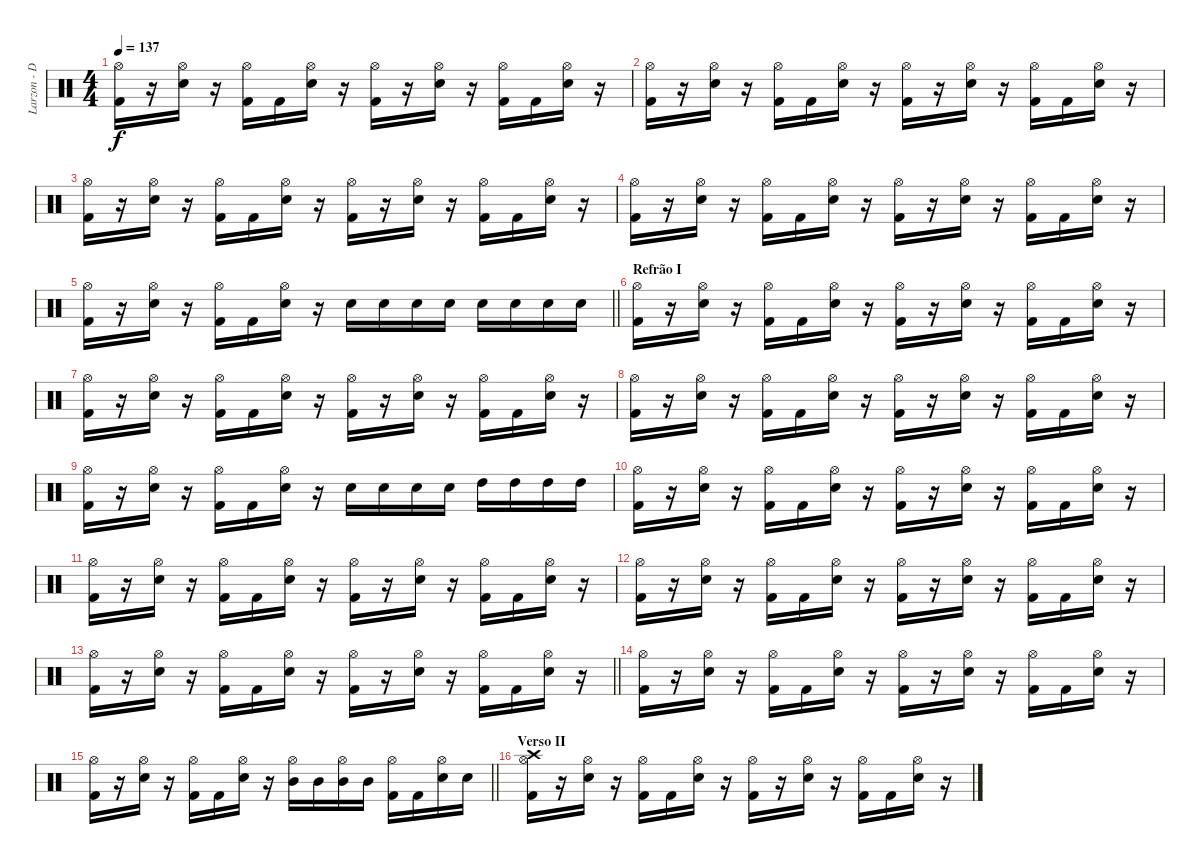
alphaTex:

\track ("Larzon - Drums" "Larzon - D") {instrument percussion}
\staff {score}
\articulation defaults
\ts (4 4)
\tempo 137
\clef neutral
\ks c
("Kick (hit) 2" "Hi-Hat (open)").16{dy f} r.16 ("Snare (hit) 2" "Hi-Hat (open)").16 r.16 ("Kick (hit) 2" "Hi-Hat (open)").16 "Kick (hit) 2".16 ("Snare (hit) 2" "Hi-Hat (open)").16 r.16 ("Kick (hit) 2" "Hi-Hat (open)").16 r.16 ("Snare (hit) 2" "Hi-Hat (open)").16 r.16 ("Kick (hit) 2" "Hi-Hat (open)").16 "Kick (hit) 2".16 ("Snare (hit) 2" "Hi-Hat (open)").16 r.16 |
("Kick (hit) 2" "Hi-Hat (open)").16 r.16 ("Snare (hit) 2" "Hi-Hat (open)").16 r.16 ("Kick (hit) 2" "Hi-Hat (open)").16 "Kick (hit) 2".16 ("Snare (hit) 2" "Hi-Hat (open)").16 r.16 ("Kick (hit) 2" "Hi-Hat (open)").16 r.16 ("Snare (hit) 2" "Hi-Hat (open)").16 r.16 ("Kick (hit) 2" "Hi-Hat (open)").16 "Kick (hit) 2".16 ("Snare (hit) 2" "Hi-Hat (open)").16 r.16 |
("Kick (hit) 2" "Hi-Hat (open)").16 r.16 ("Snare (hit) 2" "Hi-Hat (open)").16 r.16 ("Kick (hit) 2" "Hi-Hat (open)").16 "Kick (hit) 2".16 ("Snare (hit) 2" "Hi-Hat (open)").16 r.16 ("Kick (hit) 2" "Hi-Hat (open)").16 r.16 ("Snare (hit) 2" "Hi-Hat (open)").16 r.16 ("Kick (hit) 2" "Hi-Hat (open)").16 "Kick (hit) 2".16 ("Snare (hit) 2" "Hi-Hat (open)").16 r.16 |
("Kick (hit) 2" "Hi-Hat (open)").16 r.16 ("Snare (hit) 2" "Hi-Hat (open)").16 r.16 ("Kick (hit) 2" "Hi-Hat (open)").16 "Kick (hit) 2".16 ("Snare (hit) 2" "Hi-Hat (open)").16 r.16 ("Kick (hit) 2" "Hi-Hat (open)").16 r.16 ("Snare (hit) 2" "Hi-Hat (open)").16 r.16 ("Kick (hit) 2" "Hi-Hat (open)").16 "Kick (hit) 2".16 ("Snare (hit) 2" "Hi-Hat (open)").16 r.16 |
\barLineRight lightlight
("Kick (hit) 2" "Hi-Hat (open)").16 r.16 ("Snare (hit) 2" "Hi-Hat (open)").16 r.16 ("Kick (hit) 2" "Hi-Hat (open)").16 "Kick (hit) 2".16 ("Snare (hit) 2" "Hi-Hat (open)").16 r.16 "Snare (hit) 2".16 "Snare (hit) 2".16 "Snare (hit) 2".16 "Snare (hit) 2".16 "Snare (hit) 2".16 "Snare (hit) 2".16 "Snare (hit) 2".16 "Snare (hit) 2".16 |
\section ("" "Refrão I")
("Kick (hit) 2" "Hi-Hat (open)").16 r.16 ("Snare (hit) 2" "Hi-Hat (open)").16 r.16 ("Kick (hit) 2" "Hi-Hat (open)").16 "Kick (hit) 2".16 ("Snare (hit) 2" "Hi-Hat (open)").16 r.16 ("Kick (hit) 2" "Hi-Hat (open)").16 r.16 ("Snare (hit) 2" "Hi-Hat (open)").16 r.16 ("Kick (hit) 2" "Hi-Hat (open)").16 "Kick (hit) 2".16 ("Snare (hit) 2" "Hi-Hat (open)").16 r.16 |
("Kick (hit) 2" "Hi-Hat (open)").16 r.16 ("Snare (hit) 2" "Hi-Hat (open)").16 r.16 ("Kick (hit) 2" "Hi-Hat (open)").16 "Kick (hit) 2".16 ("Snare (hit) 2" "Hi-Hat (open)").16 r.16 ("Kick (hit) 2" "Hi-Hat (open)").16 r.16 ("Snare (hit) 2" "Hi-Hat (open)").16 r.16 ("Kick (hit) 2" "Hi-Hat (open)").16 "Kick (hit) 2".16 ("Snare (hit) 2" "Hi-Hat (open)").16 r.16 |
("Kick (hit) 2" "Hi-Hat (open)").16 r.16 ("Snare (hit) 2" "Hi-Hat (open)").16 r.16 ("Kick (hit) 2" "Hi-Hat (open)").16 "Kick (hit) 2".16 ("Snare (hit) 2" "Hi-Hat (open)").16 r.16 ("Kick (hit) 2" "Hi-Hat (open)").16 r.16 ("Snare (hit) 2" "Hi-Hat (open)").16 r.16 ("Kick (hit) 2" "Hi-Hat (open)").16 "Kick (hit) 2".16 ("Snare (hit) 2" "Hi-Hat (open)").16 r.16 |
("Kick (hit) 2" "Hi-Hat (open)").16 r.16 ("Snare (hit) 2" "Hi-Hat (open)").16 r.16 ("Kick (hit) 2" "Hi-Hat (open)").16 "Kick (hit) 2".16 ("Snare (hit) 2" "Hi-Hat (open)").16 r.16 "Snare (hit) 2".16 "Snare (hit) 2".16 "Snare (hit) 2".16 "Snare (hit) 2".16 "High Tom (hit)".16 "High Tom (hit)".16 "High Tom (hit)".16 "High Tom (hit)".16 |
("Kick (hit) 2" "Hi-Hat (open)").16 r.16 ("Snare (hit) 2" "Hi-Hat (open)").16 r.16 ("Kick (hit) 2" "Hi-Hat (open)").16 "Kick (hit) 2".16 ("Snare (hit) 2" "Hi-Hat (open)").16 r.16 ("Kick (hit) 2" "Hi-Hat (open)").16 r.16 ("Snare (hit) 2" "Hi-Hat (open)").16 r.16 ("Kick (hit) 2" "Hi-Hat (open)").16 "Kick (hit) 2".16 ("Snare (hit) 2" "Hi-Hat (open)").16 r.16 |
("Kick (hit) 2" "Hi-Hat (open)").16 r.16 ("Snare (hit) 2" "Hi-Hat (open)").16 r.16 ("Kick (hit) 2" "Hi-Hat (open)").16 "Kick (hit) 2".16 ("Snare (hit) 2" "Hi-Hat (open)").16 r.16 ("Kick (hit) 2" "Hi-Hat (open)").16 r.16 ("Snare (hit) 2" "Hi-Hat (open)").16 r.16 ("Kick (hit) 2" "Hi-Hat (open)").16 "Kick (hit) 2".16 ("Snare (hit) 2" "Hi-Hat (open)").16 r.16 |
("Kick (hit) 2" "Hi-Hat (open)").16 r.16 ("Snare (hit) 2" "Hi-Hat (open)").16 r.16 ("Kick (hit) 2" "Hi-Hat (open)").16 "Kick (hit) 2".16 ("Snare (hit) 2" "Hi-Hat (open)").16 r.16 ("Kick (hit) 2" "Hi-Hat (open)").16 r.16 ("Snare (hit) 2" "Hi-Hat (open)").16 r.16 ("Kick (hit) 2" "Hi-Hat (open)").16 "Kick (hit) 2".16 ("Snare (hit) 2" "Hi-Hat (open)").16 r.16 |
\barLineRight lightlight
("Kick (hit) 2" "Hi-Hat (open)").16 r.16 ("Snare (hit) 2" "Hi-Hat (open)").16 r.16 ("Kick (hit) 2" "Hi-Hat (open)").16 "Kick (hit) 2".16 ("Snare (hit) 2" "Hi-Hat (open)").16 r.16 ("Kick (hit) 2" "Hi-Hat (open)").16 r.16 ("Snare (hit) 2" "Hi-Hat (open)").16 r.16 ("Kick (hit) 2" "Hi-Hat (open)").16 "Kick (hit) 2".16 ("Snare (hit) 2" "Hi-Hat (open)").16 r.16 |
("Kick (hit) 2" "Hi-Hat (open)").16 r.16 ("Snare (hit) 2" "Hi-Hat (open)").16 r.16 ("Kick (hit) 2" "Hi-Hat (open)").16 "Kick (hit) 2".16 ("Snare (hit) 2" "Hi-Hat (open)").16 r.16 ("Kick (hit) 2" "Hi-Hat (open)").16 r.16 ("Snare (hit) 2" "Hi-Hat (open)").16 r.16 ("Kick (hit) 2" "Hi-Hat (open)").16 "Kick (hit) 2".16 ("Snare (hit) 2" "Hi-Hat (open)").16 r.16 |
\barLineRight lightlight
("Kick (hit) 2" "Hi-Hat (open)").16 r.16 ("Snare (hit) 2" "Hi-Hat (open)").16 r.16 ("Kick (hit) 2" "Hi-Hat (open)").16 "Kick (hit) 2".16 ("Snare (hit) 2" "Hi-Hat (open)").16 r.16 ("Mid Tom (hit)" "Hi-Hat (open)").16 "Mid Tom (hit)".16 ("Mid Tom (hit)" "Hi-Hat (open)").16 "Mid Tom (hit)".16 ("Kick (hit) 2" "Hi-Hat (open)").16 "Kick (hit) 2".16 ("Snare (hit) 2" "Hi-Hat (open)").16 "Snare (hit) 2".16 |
\section ("" "Verso II")
("Kick (hit) 2" "Crash high (hit)" "Hi-Hat (open)").16 r.16 ("Snare (hit) 2" "Hi-Hat (open)").16 r.16 ("Kick (hit) 2" "Hi-Hat (open)").16 "Kick (hit) 2".16 ("Snare (hit) 2" "Hi-Hat (open)").16 r.16 ("Kick (hit) 2" "Hi-Hat (open)").16 r.16 ("Snare (hit) 2" "Hi-Hat (open)").16 r.16 ("Kick (hit) 2" "Hi-Hat (open)").16 "Kick (hit) 2".16 ("Snare (hit) 2" "Hi-Hat (open)").16 r.16
